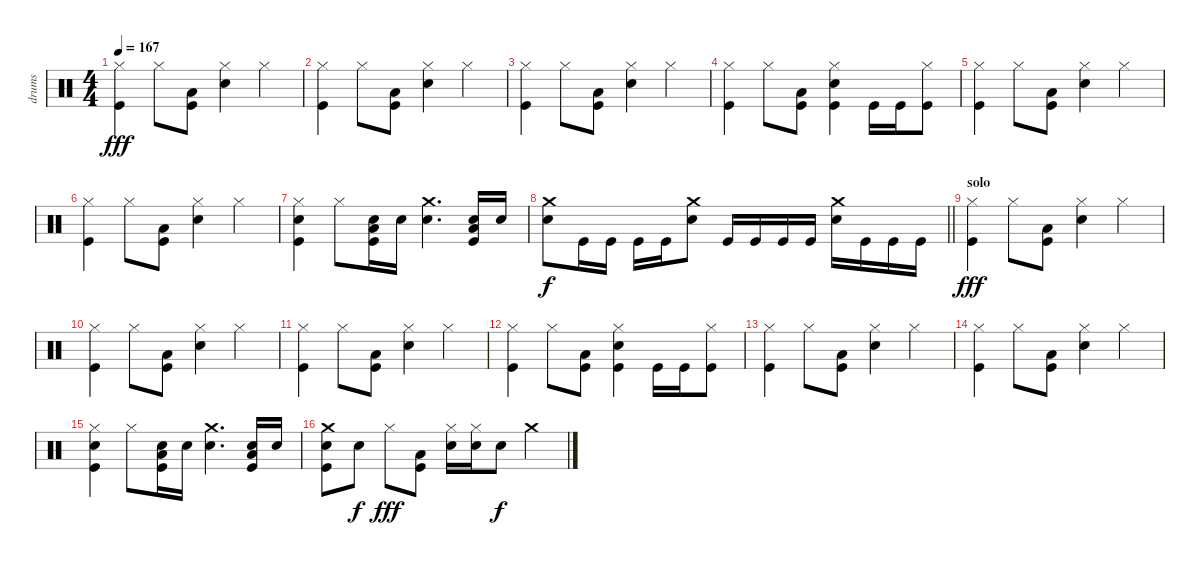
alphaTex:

\track ("drums" "drums") {instrument percussion}
\staff {score}
\articulation defaults
\ts (4 4)
\tempo 167
\clef neutral
\ks c
("Hi-Hat (closed)" "Kick (hit)").4{dy fff} "Hi-Hat (closed)".8 ("Low Tom (hit)" "Kick (hit)").8 ("Snare (hit) 2" "Hi-Hat (closed)").4 "Hi-Hat (closed)".4 |
("Hi-Hat (closed)" "Kick (hit)").4 "Hi-Hat (closed)".8 ("Low Tom (hit)" "Kick (hit)").8 ("Snare (hit) 2" "Hi-Hat (closed)").4 "Hi-Hat (closed)".4 |
("Hi-Hat (closed)" "Kick (hit)").4 "Hi-Hat (closed)".8 ("Low Tom (hit)" "Kick (hit)").8 ("Snare (hit) 2" "Hi-Hat (closed)").4 "Hi-Hat (closed)".4 |
("Hi-Hat (closed)" "Kick (hit)").4 "Hi-Hat (closed)".8 ("Low Tom (hit)" "Kick (hit)").8 ("Snare (hit) 2" "Hi-Hat (closed)" "Kick (hit)").4 "Kick (hit)".16 "Kick (hit)".16 ("Hi-Hat (closed)" "Kick (hit)").8 |
("Hi-Hat (closed)" "Kick (hit)").4 "Hi-Hat (closed)".8 ("Low Tom (hit)" "Kick (hit)").8 ("Snare (hit) 2" "Hi-Hat (closed)").4 "Hi-Hat (closed)".4 |
("Hi-Hat (closed)" "Kick (hit)").4 "Hi-Hat (closed)".8 ("Low Tom (hit)" "Kick (hit)").8 ("Snare (hit) 2" "Hi-Hat (closed)").4 "Hi-Hat (closed)".4 |
("Snare (hit) 2" "Hi-Hat (closed)" "Kick (hit)").4 "Hi-Hat (closed)".8 ("Snare (hit) 2" "Low Tom (hit)" "Kick (hit)").16 "Snare (hit) 2".16 ("Snare (hit) 2" "Crash medium (hit)").4{d} ("Snare (hit) 2" "Low Tom (hit)" "Kick (hit)").16 "Snare (hit) 2".16 |
\barLineRight lightlight
("Snare (hit) 2" "Crash medium (hit)").8{dy f} "Kick (hit)".16 "Kick (hit)".16 "Kick (hit)".16 "Kick (hit)".16 ("Snare (hit) 2" "Crash medium (hit)").8 "Kick (hit)".16 "Kick (hit)".16 "Kick (hit)".16 "Kick (hit)".16 ("Snare (hit) 2" "Crash medium (hit)").16 "Kick (hit)".16 "Kick (hit)".16 "Kick (hit)".16 |
\section ("" "solo")
("Hi-Hat (closed)" "Kick (hit)").4{dy fff} "Hi-Hat (closed)".8 ("Low Tom (hit)" "Kick (hit)").8 ("Snare (hit) 2" "Hi-Hat (closed)").4 "Hi-Hat (closed)".4 |
("Hi-Hat (closed)" "Kick (hit)").4 "Hi-Hat (closed)".8 ("Low Tom (hit)" "Kick (hit)").8 ("Snare (hit) 2" "Hi-Hat (closed)").4 "Hi-Hat (closed)".4 |
("Hi-Hat (closed)" "Kick (hit)").4 "Hi-Hat (closed)".8 ("Low Tom (hit)" "Kick (hit)").8 ("Snare (hit) 2" "Hi-Hat (closed)").4 "Hi-Hat (closed)".4 |
("Hi-Hat (closed)" "Kick (hit)").4 "Hi-Hat (closed)".8 ("Low Tom (hit)" "Kick (hit)").8 ("Snare (hit) 2" "Hi-Hat (closed)" "Kick (hit)").4 "Kick (hit)".16 "Kick (hit)".16 ("Hi-Hat (closed)" "Kick (hit)").8 |
("Hi-Hat (closed)" "Kick (hit)").4 "Hi-Hat (closed)".8 ("Low Tom (hit)" "Kick (hit)").8 ("Snare (hit) 2" "Hi-Hat (closed)").4 "Hi-Hat (closed)".4 |
("Hi-Hat (closed)" "Kick (hit)").4 "Hi-Hat (closed)".8 ("Low Tom (hit)" "Kick (hit)").8 ("Snare (hit) 2" "Hi-Hat (closed)").4 "Hi-Hat (closed)".4 |
("Snare (hit) 2" "Hi-Hat (closed)" "Kick (hit)").4 "Hi-Hat (closed)".8 ("Snare (hit) 2" "Low Tom (hit)" "Kick (hit)").16 "Snare (hit) 2".16 ("Snare (hit) 2" "Crash medium (hit)").4{d} ("Snare (hit) 2" "Low Tom (hit)" "Kick (hit)").16 "Snare (hit) 2".16 |
("Snare (hit) 2" "Crash medium (hit)" "Kick (hit)").8 "Snare (hit) 2".8{dy f} "Hi-Hat (closed)".8{dy fff} ("Low Tom (hit)" "Kick (hit)").8 ("Snare (hit) 2" "Hi-Hat (closed)").16 ("Snare (hit) 2" "Hi-Hat (closed)").16 "Snare (hit) 2".8{dy f} "Crash medium (hit)".4
